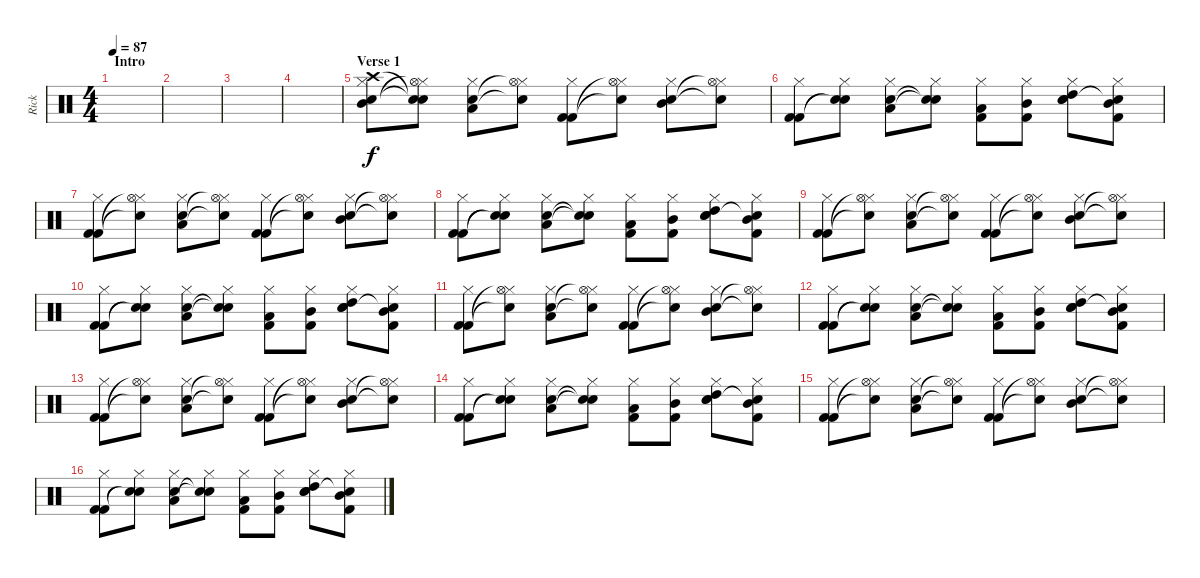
\track ("Rick" "Rick") {instrument percussion}
\staff {score}
\articulation defaults
\ts (4 4)
\section ("" "Intro")
\tempo 87
\clef neutral
\ks c
|
|
|
|
\section ("" "Verse 1")
("Hi-Hat (closed)" "Mid Tom (hit)" "Snare (hit) 2" "Crash high (hit)").8 ("Hi-Hat (closed)" "Hi-Hat (open)"{t} "Snare (hit)"{t} "Snare (hit)"{t}).8 ("Hi-Hat (closed)" "Electric Snare (hit)" "Low Tom (hit)").8 ("Hi-Hat (closed)" "Hi-Hat (open)"{t} "Snare (hit)"{t}).8 ("Hi-Hat (closed)" "Kick (hit) 2" "Kick (hit) 2").8 ("Hi-Hat (closed)" "Hi-Hat (open)"{t} "Snare (hit)"{t}).8 ("Hi-Hat (closed)" "Electric Snare (hit)" "Mid Tom (hit)").8 ("Hi-Hat (closed)" "Hi-Hat (open)"{t} "Snare (hit)"{t}).8 |
("Hi-Hat (closed)" "Kick (hit) 2" "Kick (hit) 2").8 ("Hi-Hat (closed)" "Snare (hit)"{t} "Snare (hit)"{t}).8 ("Hi-Hat (closed)" "Electric Snare (hit)" "Low Tom (hit)").8 ("Hi-Hat (closed)" "Snare (hit)"{t} "Snare (hit)"{t}).8 ("Hi-Hat (closed)" "Low Tom (hit)" "Kick (hit) 2").8 ("Hi-Hat (closed)" "Mid Tom (hit)" "Kick (hit) 2").8 ("Hi-Hat (closed)" "Electric Snare (hit)" "High Tom (hit)" "Snare (hit) 2").8 ("Hi-Hat (closed)" "Mid Tom (hit)" "Kick (hit) 2" "Snare (hit)"{t}).8 |
("Hi-Hat (closed)" "Kick (hit) 2" "Kick (hit) 2").8 ("Hi-Hat (closed)" "Hi-Hat (open)"{t} "Snare (hit)"{t}).8 ("Hi-Hat (closed)" "Electric Snare (hit)" "Low Tom (hit)").8 ("Hi-Hat (closed)" "Hi-Hat (open)"{t} "Snare (hit)"{t}).8 ("Hi-Hat (closed)" "Kick (hit) 2" "Kick (hit) 2").8 ("Hi-Hat (closed)" "Hi-Hat (open)"{t} "Snare (hit)"{t}).8 ("Hi-Hat (closed)" "Electric Snare (hit)" "Mid Tom (hit)").8 ("Hi-Hat (closed)" "Hi-Hat (open)"{t} "Snare (hit)"{t}).8 |
("Hi-Hat (closed)" "Kick (hit) 2" "Kick (hit) 2").8 ("Hi-Hat (closed)" "Snare (hit)"{t} "Snare (hit)"{t}).8 ("Hi-Hat (closed)" "Electric Snare (hit)" "Low Tom (hit)").8 ("Hi-Hat (closed)" "Snare (hit)"{t} "Snare (hit)"{t}).8 ("Hi-Hat (closed)" "Low Tom (hit)" "Kick (hit) 2").8 ("Hi-Hat (closed)" "Mid Tom (hit)" "Kick (hit) 2").8 ("Hi-Hat (closed)" "Electric Snare (hit)" "High Tom (hit)" "Snare (hit) 2").8 ("Hi-Hat (closed)" "Mid Tom (hit)" "Kick (hit) 2" "Snare (hit)"{t}).8 |
("Hi-Hat (closed)" "Kick (hit) 2" "Kick (hit) 2").8 ("Hi-Hat (closed)" "Hi-Hat (open)"{t} "Snare (hit)"{t}).8 ("Hi-Hat (closed)" "Electric Snare (hit)" "Low Tom (hit)").8 ("Hi-Hat (closed)" "Hi-Hat (open)"{t} "Snare (hit)"{t}).8 ("Hi-Hat (closed)" "Kick (hit) 2" "Kick (hit) 2").8 ("Hi-Hat (closed)" "Hi-Hat (open)"{t} "Snare (hit)"{t}).8 ("Hi-Hat (closed)" "Electric Snare (hit)" "Mid Tom (hit)").8 ("Hi-Hat (closed)" "Hi-Hat (open)"{t} "Snare (hit)"{t}).8 |
("Hi-Hat (closed)" "Kick (hit) 2" "Kick (hit) 2").8 ("Hi-Hat (closed)" "Snare (hit)"{t} "Snare (hit)"{t}).8 ("Hi-Hat (closed)" "Electric Snare (hit)" "Low Tom (hit)").8 ("Hi-Hat (closed)" "Snare (hit)"{t} "Snare (hit)"{t}).8 ("Hi-Hat (closed)" "Low Tom (hit)" "Kick (hit) 2").8 ("Hi-Hat (closed)" "Mid Tom (hit)" "Kick (hit) 2").8 ("Hi-Hat (closed)" "Electric Snare (hit)" "High Tom (hit)" "Snare (hit) 2").8 ("Hi-Hat (closed)" "Mid Tom (hit)" "Kick (hit) 2" "Snare (hit)"{t}).8 |
("Hi-Hat (closed)" "Kick (hit) 2" "Kick (hit) 2").8 ("Hi-Hat (closed)" "Hi-Hat (open)"{t} "Snare (hit)"{t}).8 ("Hi-Hat (closed)" "Electric Snare (hit)" "Low Tom (hit)").8 ("Hi-Hat (closed)" "Hi-Hat (open)"{t} "Snare (hit)"{t}).8 ("Hi-Hat (closed)" "Kick (hit) 2" "Kick (hit) 2").8 ("Hi-Hat (closed)" "Hi-Hat (open)"{t} "Snare (hit)"{t}).8 ("Hi-Hat (closed)" "Electric Snare (hit)" "Mid Tom (hit)").8 ("Hi-Hat (closed)" "Hi-Hat (open)"{t} "Snare (hit)"{t}).8 |
("Hi-Hat (closed)" "Kick (hit) 2" "Kick (hit) 2").8 ("Hi-Hat (closed)" "Snare (hit)"{t} "Snare (hit)"{t}).8 ("Hi-Hat (closed)" "Electric Snare (hit)" "Low Tom (hit)").8 ("Hi-Hat (closed)" "Snare (hit)"{t} "Snare (hit)"{t}).8 ("Hi-Hat (closed)" "Low Tom (hit)" "Kick (hit) 2").8 ("Hi-Hat (closed)" "Mid Tom (hit)" "Kick (hit) 2").8 ("Hi-Hat (closed)" "Electric Snare (hit)" "High Tom (hit)" "Snare (hit) 2").8 ("Hi-Hat (closed)" "Mid Tom (hit)" "Kick (hit) 2" "Snare (hit)"{t}).8 |
("Hi-Hat (closed)" "Kick (hit) 2" "Kick (hit) 2").8 ("Hi-Hat (closed)" "Hi-Hat (open)"{t} "Snare (hit)"{t}).8 ("Hi-Hat (closed)" "Electric Snare (hit)" "Low Tom (hit)").8 ("Hi-Hat (closed)" "Hi-Hat (open)"{t} "Snare (hit)"{t}).8 ("Hi-Hat (closed)" "Kick (hit) 2" "Kick (hit) 2").8 ("Hi-Hat (closed)" "Hi-Hat (open)"{t} "Snare (hit)"{t}).8 ("Hi-Hat (closed)" "Electric Snare (hit)" "Mid Tom (hit)").8 ("Hi-Hat (closed)" "Hi-Hat (open)"{t} "Snare (hit)"{t}).8 |
("Hi-Hat (closed)" "Kick (hit) 2" "Kick (hit) 2").8 ("Hi-Hat (closed)" "Snare (hit)"{t} "Snare (hit)"{t}).8 ("Hi-Hat (closed)" "Electric Snare (hit)" "Low Tom (hit)").8 ("Hi-Hat (closed)" "Snare (hit)"{t} "Snare (hit)"{t}).8 ("Hi-Hat (closed)" "Low Tom (hit)" "Kick (hit) 2").8 ("Hi-Hat (closed)" "Mid Tom (hit)" "Kick (hit) 2").8 ("Hi-Hat (closed)" "Electric Snare (hit)" "High Tom (hit)" "Snare (hit) 2").8 ("Hi-Hat (closed)" "Mid Tom (hit)" "Kick (hit) 2" "Snare (hit)"{t}).8 |
("Hi-Hat (closed)" "Kick (hit) 2" "Kick (hit) 2").8 ("Hi-Hat (closed)" "Hi-Hat (open)"{t} "Snare (hit)"{t}).8 ("Hi-Hat (closed)" "Electric Snare (hit)" "Low Tom (hit)").8 ("Hi-Hat (closed)" "Hi-Hat (open)"{t} "Snare (hit)"{t}).8 ("Hi-Hat (closed)" "Kick (hit) 2" "Kick (hit) 2").8 ("Hi-Hat (closed)" "Hi-Hat (open)"{t} "Snare (hit)"{t}).8 ("Hi-Hat (closed)" "Electric Snare (hit)" "Mid Tom (hit)").8 ("Hi-Hat (closed)" "Hi-Hat (open)"{t} "Snare (hit)"{t}).8 |
("Hi-Hat (closed)" "Kick (hit) 2" "Kick (hit) 2").8 ("Hi-Hat (closed)" "Snare (hit)"{t} "Snare (hit)"{t}).8 ("Hi-Hat (closed)" "Electric Snare (hit)" "Low Tom (hit)").8 ("Hi-Hat (closed)" "Snare (hit)"{t} "Snare (hit)"{t}).8 ("Hi-Hat (closed)" "Low Tom (hit)" "Kick (hit) 2").8 ("Hi-Hat (closed)" "Mid Tom (hit)" "Kick (hit) 2").8 ("Hi-Hat (closed)" "Electric Snare (hit)" "High Tom (hit)" "Snare (hit) 2").8 ("Hi-Hat (closed)" "Mid Tom (hit)" "Kick (hit) 2" "Snare (hit)"{t}).8
